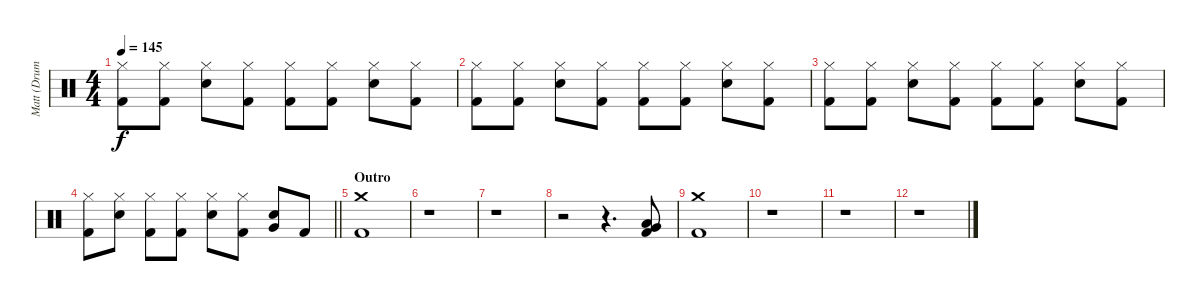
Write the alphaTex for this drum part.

\track ("Matt (Drums)" "Matt (Drum") {instrument percussion}
\staff {score}
\articulation defaults
\ts (4 4)
\tempo 145
\clef neutral
\ks c
("Hi-Hat (closed)" "Kick (hit) 2").8{dy f} ("Hi-Hat (closed)" "Kick (hit) 2").8 ("Hi-Hat (closed)" "Electric Snare (hit)").8 ("Hi-Hat (closed)" "Kick (hit) 2").8 ("Hi-Hat (closed)" "Kick (hit) 2").8 ("Hi-Hat (closed)" "Kick (hit) 2").8 ("Hi-Hat (closed)" "Electric Snare (hit)").8 ("Hi-Hat (closed)" "Kick (hit) 2").8 |
("Hi-Hat (closed)" "Kick (hit) 2").8 ("Hi-Hat (closed)" "Kick (hit) 2").8 ("Hi-Hat (closed)" "Electric Snare (hit)").8 ("Hi-Hat (closed)" "Kick (hit) 2").8 ("Hi-Hat (closed)" "Kick (hit) 2").8 ("Hi-Hat (closed)" "Kick (hit) 2").8 ("Hi-Hat (closed)" "Electric Snare (hit)").8 ("Hi-Hat (closed)" "Kick (hit) 2").8 |
("Hi-Hat (closed)" "Kick (hit) 2").8 ("Hi-Hat (closed)" "Kick (hit) 2").8 ("Hi-Hat (closed)" "Electric Snare (hit)").8 ("Hi-Hat (closed)" "Kick (hit) 2").8 ("Hi-Hat (closed)" "Kick (hit) 2").8 ("Hi-Hat (closed)" "Kick (hit) 2").8 ("Hi-Hat (closed)" "Electric Snare (hit)").8 ("Hi-Hat (closed)" "Kick (hit) 2").8 |
\barLineRight lightlight
("Hi-Hat (closed)" "Kick (hit) 2").8 ("Hi-Hat (closed)" "Electric Snare (hit)").8 ("Hi-Hat (closed)" "Kick (hit) 2").8 ("Hi-Hat (closed)" "Kick (hit) 2").8 ("Hi-Hat (closed)" "Electric Snare (hit)").8 ("Hi-Hat (closed)" "Kick (hit) 2").8 ("Very Low Tom (hit)" "Electric Snare (hit)").8 "Kick (hit) 2".8 |
\section ("" "Outro")
("Crash medium (hit)" "Kick (hit) 2").1 |
r.1 |
r.1 |
r.2 r.4{d} ("Very Low Tom (hit)" "Low Tom (hit)" "Kick (hit) 2").8 |
("Crash medium (hit)" "Kick (hit) 2").1 |
r.1 |
r.1 |
r.1
